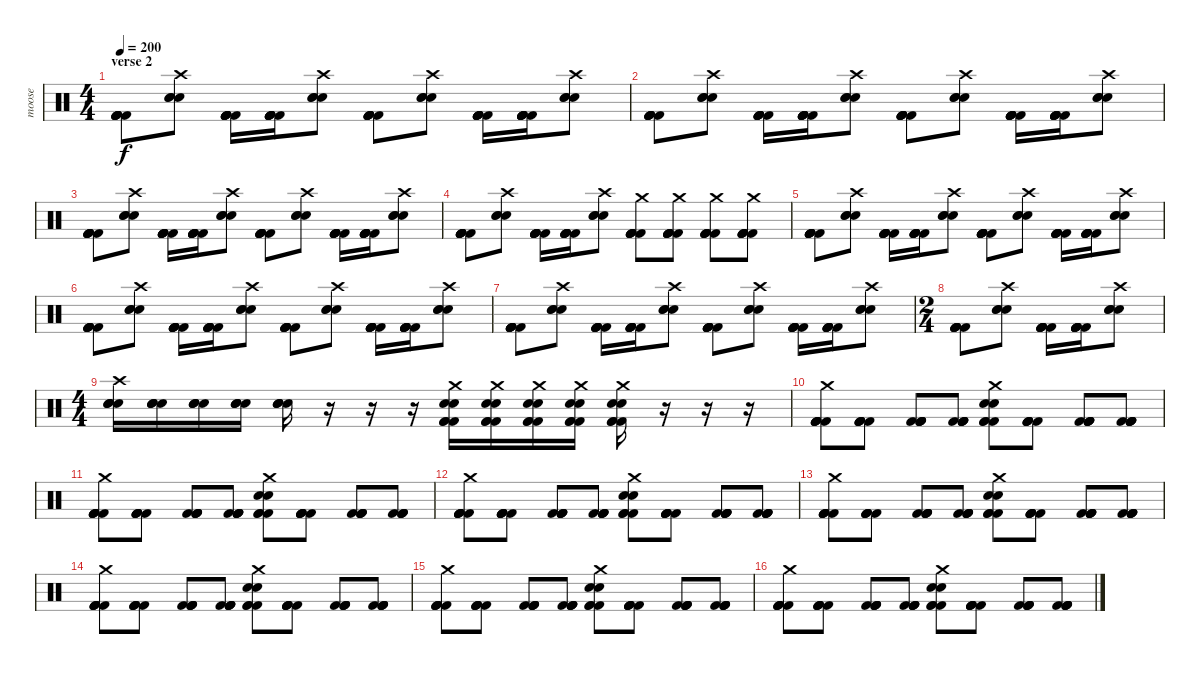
\track ("moose" "moose") {instrument percussion}
\staff {score}
\articulation defaults
\ts (4 4)
\section ("" "verse 2")
\tempo 200
\clef neutral
\ks c
("Kick (hit) 2" "Kick (hit) 2" "Kick (hit) 2" "Kick (hit) 2" "Kick (hit) 2" "Kick (hit) 2").8{dy f} ("Electric Snare (hit)" "Electric Snare (hit)" "Electric Snare (hit)" "Crash high (hit)").8 ("Kick (hit) 2" "Kick (hit) 2" "Kick (hit) 2" "Kick (hit) 2" "Kick (hit) 2" "Kick (hit) 2").16 ("Kick (hit) 2" "Kick (hit) 2" "Kick (hit) 2" "Kick (hit) 2" "Kick (hit) 2" "Kick (hit) 2").16 ("Electric Snare (hit)" "Electric Snare (hit)" "Electric Snare (hit)" "Crash high (hit)").8 ("Kick (hit) 2" "Kick (hit) 2" "Kick (hit) 2" "Kick (hit) 2" "Kick (hit) 2" "Kick (hit) 2").8 ("Electric Snare (hit)" "Electric Snare (hit)" "Electric Snare (hit)" "Crash high (hit)").8 ("Kick (hit) 2" "Kick (hit) 2" "Kick (hit) 2" "Kick (hit) 2" "Kick (hit) 2" "Kick (hit) 2").16 ("Kick (hit) 2" "Kick (hit) 2" "Kick (hit) 2" "Kick (hit) 2" "Kick (hit) 2" "Kick (hit) 2").16 ("Electric Snare (hit)" "Electric Snare (hit)" "Electric Snare (hit)" "Crash high (hit)").8 |
("Kick (hit) 2" "Kick (hit) 2" "Kick (hit) 2" "Kick (hit) 2" "Kick (hit) 2" "Kick (hit) 2").8 ("Electric Snare (hit)" "Electric Snare (hit)" "Electric Snare (hit)" "Crash high (hit)").8 ("Kick (hit) 2" "Kick (hit) 2" "Kick (hit) 2" "Kick (hit) 2" "Kick (hit) 2" "Kick (hit) 2").16 ("Kick (hit) 2" "Kick (hit) 2" "Kick (hit) 2" "Kick (hit) 2" "Kick (hit) 2" "Kick (hit) 2").16 ("Electric Snare (hit)" "Electric Snare (hit)" "Electric Snare (hit)" "Crash high (hit)").8 ("Kick (hit) 2" "Kick (hit) 2" "Kick (hit) 2" "Kick (hit) 2" "Kick (hit) 2" "Kick (hit) 2").8 ("Electric Snare (hit)" "Electric Snare (hit)" "Electric Snare (hit)" "Crash high (hit)").8 ("Kick (hit) 2" "Kick (hit) 2" "Kick (hit) 2" "Kick (hit) 2" "Kick (hit) 2" "Kick (hit) 2").16 ("Kick (hit) 2" "Kick (hit) 2" "Kick (hit) 2" "Kick (hit) 2" "Kick (hit) 2" "Kick (hit) 2").16 ("Electric Snare (hit)" "Electric Snare (hit)" "Electric Snare (hit)" "Crash high (hit)").8 |
("Kick (hit) 2" "Kick (hit) 2" "Kick (hit) 2" "Kick (hit) 2" "Kick (hit) 2" "Kick (hit) 2").8 ("Electric Snare (hit)" "Electric Snare (hit)" "Electric Snare (hit)" "Crash high (hit)").8 ("Kick (hit) 2" "Kick (hit) 2" "Kick (hit) 2" "Kick (hit) 2" "Kick (hit) 2" "Kick (hit) 2").16 ("Kick (hit) 2" "Kick (hit) 2" "Kick (hit) 2" "Kick (hit) 2" "Kick (hit) 2" "Kick (hit) 2").16 ("Electric Snare (hit)" "Electric Snare (hit)" "Electric Snare (hit)" "Crash high (hit)").8 ("Kick (hit) 2" "Kick (hit) 2" "Kick (hit) 2" "Kick (hit) 2" "Kick (hit) 2" "Kick (hit) 2").8 ("Electric Snare (hit)" "Electric Snare (hit)" "Electric Snare (hit)" "Crash high (hit)").8 ("Kick (hit) 2" "Kick (hit) 2" "Kick (hit) 2" "Kick (hit) 2" "Kick (hit) 2" "Kick (hit) 2").16 ("Kick (hit) 2" "Kick (hit) 2" "Kick (hit) 2" "Kick (hit) 2" "Kick (hit) 2" "Kick (hit) 2").16 ("Electric Snare (hit)" "Electric Snare (hit)" "Electric Snare (hit)" "Crash high (hit)").8 |
("Kick (hit) 2" "Kick (hit) 2" "Kick (hit) 2" "Kick (hit) 2" "Kick (hit) 2" "Kick (hit) 2").8 ("Electric Snare (hit)" "Electric Snare (hit)" "Electric Snare (hit)" "Crash high (hit)").8 ("Kick (hit) 2" "Kick (hit) 2" "Kick (hit) 2" "Kick (hit) 2" "Kick (hit) 2" "Kick (hit) 2").16 ("Kick (hit) 2" "Kick (hit) 2" "Kick (hit) 2" "Kick (hit) 2" "Kick (hit) 2" "Kick (hit) 2").16 ("Electric Snare (hit)" "Electric Snare (hit)" "Electric Snare (hit)" "Crash high (hit)").8 ("Kick (hit) 2" "Kick (hit) 2" "Kick (hit) 2" "Kick (hit) 2" "Kick (hit) 2" "Crash medium (hit)").8 ("Kick (hit) 2" "Kick (hit) 2" "Kick (hit) 2" "Kick (hit) 2" "Kick (hit) 2" "Crash medium (hit)").8 ("Kick (hit) 2" "Kick (hit) 2" "Kick (hit) 2" "Kick (hit) 2" "Kick (hit) 2" "Crash medium (hit)").8 ("Kick (hit) 2" "Kick (hit) 2" "Kick (hit) 2" "Kick (hit) 2" "Kick (hit) 2" "Crash medium (hit)").8 |
("Kick (hit) 2" "Kick (hit) 2" "Kick (hit) 2" "Kick (hit) 2" "Kick (hit) 2" "Kick (hit) 2").8 ("Electric Snare (hit)" "Electric Snare (hit)" "Electric Snare (hit)" "Crash high (hit)").8 ("Kick (hit) 2" "Kick (hit) 2" "Kick (hit) 2" "Kick (hit) 2" "Kick (hit) 2" "Kick (hit) 2").16 ("Kick (hit) 2" "Kick (hit) 2" "Kick (hit) 2" "Kick (hit) 2" "Kick (hit) 2" "Kick (hit) 2").16 ("Electric Snare (hit)" "Electric Snare (hit)" "Electric Snare (hit)" "Crash high (hit)").8 ("Kick (hit) 2" "Kick (hit) 2" "Kick (hit) 2" "Kick (hit) 2" "Kick (hit) 2" "Kick (hit) 2").8 ("Electric Snare (hit)" "Electric Snare (hit)" "Electric Snare (hit)" "Crash high (hit)").8 ("Kick (hit) 2" "Kick (hit) 2" "Kick (hit) 2" "Kick (hit) 2" "Kick (hit) 2" "Kick (hit) 2").16 ("Kick (hit) 2" "Kick (hit) 2" "Kick (hit) 2" "Kick (hit) 2" "Kick (hit) 2" "Kick (hit) 2").16 ("Electric Snare (hit)" "Electric Snare (hit)" "Electric Snare (hit)" "Crash high (hit)").8 |
("Kick (hit) 2" "Kick (hit) 2" "Kick (hit) 2" "Kick (hit) 2" "Kick (hit) 2" "Kick (hit) 2").8 ("Electric Snare (hit)" "Electric Snare (hit)" "Electric Snare (hit)" "Crash high (hit)").8 ("Kick (hit) 2" "Kick (hit) 2" "Kick (hit) 2" "Kick (hit) 2" "Kick (hit) 2" "Kick (hit) 2").16 ("Kick (hit) 2" "Kick (hit) 2" "Kick (hit) 2" "Kick (hit) 2" "Kick (hit) 2" "Kick (hit) 2").16 ("Electric Snare (hit)" "Electric Snare (hit)" "Electric Snare (hit)" "Crash high (hit)").8 ("Kick (hit) 2" "Kick (hit) 2" "Kick (hit) 2" "Kick (hit) 2" "Kick (hit) 2" "Kick (hit) 2").8 ("Electric Snare (hit)" "Electric Snare (hit)" "Electric Snare (hit)" "Crash high (hit)").8 ("Kick (hit) 2" "Kick (hit) 2" "Kick (hit) 2" "Kick (hit) 2" "Kick (hit) 2" "Kick (hit) 2").16 ("Kick (hit) 2" "Kick (hit) 2" "Kick (hit) 2" "Kick (hit) 2" "Kick (hit) 2" "Kick (hit) 2").16 ("Electric Snare (hit)" "Electric Snare (hit)" "Electric Snare (hit)" "Crash high (hit)").8 |
("Kick (hit) 2" "Kick (hit) 2" "Kick (hit) 2" "Kick (hit) 2" "Kick (hit) 2" "Kick (hit) 2").8 ("Electric Snare (hit)" "Electric Snare (hit)" "Electric Snare (hit)" "Crash high (hit)").8 ("Kick (hit) 2" "Kick (hit) 2" "Kick (hit) 2" "Kick (hit) 2" "Kick (hit) 2" "Kick (hit) 2").16 ("Kick (hit) 2" "Kick (hit) 2" "Kick (hit) 2" "Kick (hit) 2" "Kick (hit) 2" "Kick (hit) 2").16 ("Electric Snare (hit)" "Electric Snare (hit)" "Electric Snare (hit)" "Crash high (hit)").8 ("Kick (hit) 2" "Kick (hit) 2" "Kick (hit) 2" "Kick (hit) 2" "Kick (hit) 2" "Kick (hit) 2").8 ("Electric Snare (hit)" "Electric Snare (hit)" "Electric Snare (hit)" "Crash high (hit)").8 ("Kick (hit) 2" "Kick (hit) 2" "Kick (hit) 2" "Kick (hit) 2" "Kick (hit) 2" "Kick (hit) 2").16 ("Kick (hit) 2" "Kick (hit) 2" "Kick (hit) 2" "Kick (hit) 2" "Kick (hit) 2" "Kick (hit) 2").16 ("Electric Snare (hit)" "Electric Snare (hit)" "Electric Snare (hit)" "Crash high (hit)").8 |
\ts (2 4)
("Kick (hit) 2" "Kick (hit) 2" "Kick (hit) 2" "Kick (hit) 2" "Kick (hit) 2" "Kick (hit) 2").8 ("Electric Snare (hit)" "Electric Snare (hit)" "Electric Snare (hit)" "Crash high (hit)").8 ("Kick (hit) 2" "Kick (hit) 2" "Kick (hit) 2" "Kick (hit) 2" "Kick (hit) 2" "Kick (hit) 2").16 ("Kick (hit) 2" "Kick (hit) 2" "Kick (hit) 2" "Kick (hit) 2" "Kick (hit) 2" "Kick (hit) 2").16 ("Electric Snare (hit)" "Electric Snare (hit)" "Electric Snare (hit)" "Crash high (hit)").8 |
\ts (4 4)
("Electric Snare (hit)" "Electric Snare (hit)" "Electric Snare (hit)" "Electric Snare (hit)" "Crash high (hit)").16 ("Electric Snare (hit)" "Electric Snare (hit)" "Electric Snare (hit)" "Electric Snare (hit)").16 ("Electric Snare (hit)" "Electric Snare (hit)" "Electric Snare (hit)" "Electric Snare (hit)").16 ("Electric Snare (hit)" "Electric Snare (hit)" "Electric Snare (hit)" "Electric Snare (hit)").16 ("Electric Snare (hit)" "Electric Snare (hit)" "Electric Snare (hit)" "Electric Snare (hit)").16 r.16 r.16 r.16 ("Kick (hit) 2" "Kick (hit) 2" "Kick (hit) 2" "Electric Snare (hit)" "Electric Snare (hit)" "Crash medium (hit)").16 ("Kick (hit) 2" "Kick (hit) 2" "Kick (hit) 2" "Electric Snare (hit)" "Electric Snare (hit)" "Crash medium (hit)").16 ("Kick (hit) 2" "Kick (hit) 2" "Kick (hit) 2" "Electric Snare (hit)" "Electric Snare (hit)" "Crash medium (hit)").16 ("Kick (hit) 2" "Kick (hit) 2" "Kick (hit) 2" "Electric Snare (hit)" "Electric Snare (hit)" "Crash medium (hit)").16 ("Kick (hit) 2" "Kick (hit) 2" "Kick (hit) 2" "Electric Snare (hit)" "Electric Snare (hit)" "Crash medium (hit)").16 r.16 r.16 r.16 |
("Kick (hit) 2" "Kick (hit) 2" "Kick (hit) 2" "Kick (hit) 2" "Kick (hit) 2" "Crash medium (hit)").8 ("Kick (hit) 2" "Kick (hit) 2" "Kick (hit) 2" "Kick (hit) 2" "Kick (hit) 2").8 ("Kick (hit) 2" "Kick (hit) 2" "Kick (hit) 2" "Kick (hit) 2" "Kick (hit) 2").8 ("Kick (hit) 2" "Kick (hit) 2" "Kick (hit) 2" "Kick (hit) 2" "Kick (hit) 2").8 ("Kick (hit) 2" "Kick (hit) 2" "Kick (hit) 2" "Electric Snare (hit)" "Electric Snare (hit)" "Crash medium (hit)").8 ("Kick (hit) 2" "Kick (hit) 2" "Kick (hit) 2" "Kick (hit) 2" "Kick (hit) 2").8 ("Kick (hit) 2" "Kick (hit) 2" "Kick (hit) 2" "Kick (hit) 2" "Kick (hit) 2").8 ("Kick (hit) 2" "Kick (hit) 2" "Kick (hit) 2" "Kick (hit) 2" "Kick (hit) 2").8 |
("Kick (hit) 2" "Kick (hit) 2" "Kick (hit) 2" "Kick (hit) 2" "Kick (hit) 2" "Crash medium (hit)").8 ("Kick (hit) 2" "Kick (hit) 2" "Kick (hit) 2" "Kick (hit) 2" "Kick (hit) 2").8 ("Kick (hit) 2" "Kick (hit) 2" "Kick (hit) 2" "Kick (hit) 2" "Kick (hit) 2").8 ("Kick (hit) 2" "Kick (hit) 2" "Kick (hit) 2" "Kick (hit) 2" "Kick (hit) 2").8 ("Kick (hit) 2" "Kick (hit) 2" "Kick (hit) 2" "Electric Snare (hit)" "Electric Snare (hit)" "Crash medium (hit)").8 ("Kick (hit) 2" "Kick (hit) 2" "Kick (hit) 2" "Kick (hit) 2" "Kick (hit) 2").8 ("Kick (hit) 2" "Kick (hit) 2" "Kick (hit) 2" "Kick (hit) 2" "Kick (hit) 2").8 ("Kick (hit) 2" "Kick (hit) 2" "Kick (hit) 2" "Kick (hit) 2" "Kick (hit) 2").8 |
("Kick (hit) 2" "Kick (hit) 2" "Kick (hit) 2" "Kick (hit) 2" "Kick (hit) 2" "Crash medium (hit)").8 ("Kick (hit) 2" "Kick (hit) 2" "Kick (hit) 2" "Kick (hit) 2" "Kick (hit) 2").8 ("Kick (hit) 2" "Kick (hit) 2" "Kick (hit) 2" "Kick (hit) 2" "Kick (hit) 2").8 ("Kick (hit) 2" "Kick (hit) 2" "Kick (hit) 2" "Kick (hit) 2" "Kick (hit) 2").8 ("Kick (hit) 2" "Kick (hit) 2" "Kick (hit) 2" "Electric Snare (hit)" "Electric Snare (hit)" "Crash medium (hit)").8 ("Kick (hit) 2" "Kick (hit) 2" "Kick (hit) 2" "Kick (hit) 2" "Kick (hit) 2").8 ("Kick (hit) 2" "Kick (hit) 2" "Kick (hit) 2" "Kick (hit) 2" "Kick (hit) 2").8 ("Kick (hit) 2" "Kick (hit) 2" "Kick (hit) 2" "Kick (hit) 2" "Kick (hit) 2").8 |
("Kick (hit) 2" "Kick (hit) 2" "Kick (hit) 2" "Kick (hit) 2" "Kick (hit) 2" "Crash medium (hit)").8 ("Kick (hit) 2" "Kick (hit) 2" "Kick (hit) 2" "Kick (hit) 2" "Kick (hit) 2").8 ("Kick (hit) 2" "Kick (hit) 2" "Kick (hit) 2" "Kick (hit) 2" "Kick (hit) 2").8 ("Kick (hit) 2" "Kick (hit) 2" "Kick (hit) 2" "Kick (hit) 2" "Kick (hit) 2").8 ("Kick (hit) 2" "Kick (hit) 2" "Kick (hit) 2" "Electric Snare (hit)" "Electric Snare (hit)" "Crash medium (hit)").8 ("Kick (hit) 2" "Kick (hit) 2" "Kick (hit) 2" "Kick (hit) 2" "Kick (hit) 2").8 ("Kick (hit) 2" "Kick (hit) 2" "Kick (hit) 2" "Kick (hit) 2" "Kick (hit) 2").8 ("Kick (hit) 2" "Kick (hit) 2" "Kick (hit) 2" "Kick (hit) 2" "Kick (hit) 2").8 |
("Kick (hit) 2" "Kick (hit) 2" "Kick (hit) 2" "Kick (hit) 2" "Kick (hit) 2" "Crash medium (hit)").8 ("Kick (hit) 2" "Kick (hit) 2" "Kick (hit) 2" "Kick (hit) 2" "Kick (hit) 2").8 ("Kick (hit) 2" "Kick (hit) 2" "Kick (hit) 2" "Kick (hit) 2" "Kick (hit) 2").8 ("Kick (hit) 2" "Kick (hit) 2" "Kick (hit) 2" "Kick (hit) 2" "Kick (hit) 2").8 ("Kick (hit) 2" "Kick (hit) 2" "Kick (hit) 2" "Electric Snare (hit)" "Electric Snare (hit)" "Crash medium (hit)").8 ("Kick (hit) 2" "Kick (hit) 2" "Kick (hit) 2" "Kick (hit) 2" "Kick (hit) 2").8 ("Kick (hit) 2" "Kick (hit) 2" "Kick (hit) 2" "Kick (hit) 2" "Kick (hit) 2").8 ("Kick (hit) 2" "Kick (hit) 2" "Kick (hit) 2" "Kick (hit) 2" "Kick (hit) 2").8 |
("Kick (hit) 2" "Kick (hit) 2" "Kick (hit) 2" "Kick (hit) 2" "Kick (hit) 2" "Crash medium (hit)").8 ("Kick (hit) 2" "Kick (hit) 2" "Kick (hit) 2" "Kick (hit) 2" "Kick (hit) 2").8 ("Kick (hit) 2" "Kick (hit) 2" "Kick (hit) 2" "Kick (hit) 2" "Kick (hit) 2").8 ("Kick (hit) 2" "Kick (hit) 2" "Kick (hit) 2" "Kick (hit) 2" "Kick (hit) 2").8 ("Kick (hit) 2" "Kick (hit) 2" "Kick (hit) 2" "Electric Snare (hit)" "Electric Snare (hit)" "Crash medium (hit)").8 ("Kick (hit) 2" "Kick (hit) 2" "Kick (hit) 2" "Kick (hit) 2" "Kick (hit) 2").8 ("Kick (hit) 2" "Kick (hit) 2" "Kick (hit) 2" "Kick (hit) 2" "Kick (hit) 2").8 ("Kick (hit) 2" "Kick (hit) 2" "Kick (hit) 2" "Kick (hit) 2" "Kick (hit) 2").8 |
("Kick (hit) 2" "Kick (hit) 2" "Kick (hit) 2" "Kick (hit) 2" "Kick (hit) 2" "Crash medium (hit)").8 ("Kick (hit) 2" "Kick (hit) 2" "Kick (hit) 2" "Kick (hit) 2" "Kick (hit) 2").8 ("Kick (hit) 2" "Kick (hit) 2" "Kick (hit) 2" "Kick (hit) 2" "Kick (hit) 2").8 ("Kick (hit) 2" "Kick (hit) 2" "Kick (hit) 2" "Kick (hit) 2" "Kick (hit) 2").8 ("Kick (hit) 2" "Kick (hit) 2" "Kick (hit) 2" "Electric Snare (hit)" "Electric Snare (hit)" "Crash medium (hit)").8 ("Kick (hit) 2" "Kick (hit) 2" "Kick (hit) 2" "Kick (hit) 2" "Kick (hit) 2").8 ("Kick (hit) 2" "Kick (hit) 2" "Kick (hit) 2" "Kick (hit) 2" "Kick (hit) 2").8 ("Kick (hit) 2" "Kick (hit) 2" "Kick (hit) 2" "Kick (hit) 2" "Kick (hit) 2").8
